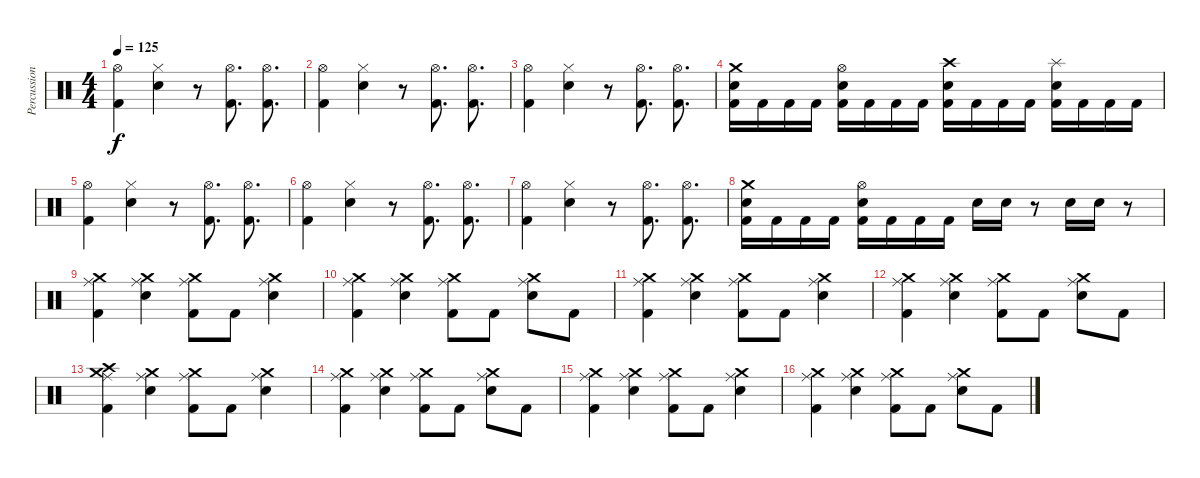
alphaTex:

\track ("Percussions" "Percussion") {instrument percussion}
\staff {score}
\articulation defaults
\ts (4 4)
\tempo 125
\clef neutral
\ks c
("Hi-Hat (open)" "Kick (hit) 2").4{dy f} ("Hi-Hat (closed)" "Electric Snare (hit)").4 r.8 ("Hi-Hat (open)" "Kick (hit) 2").8{d} ("Hi-Hat (open)" "Kick (hit) 2").8{d} |
("Hi-Hat (open)" "Kick (hit) 2").4 ("Hi-Hat (closed)" "Electric Snare (hit)").4 r.8 ("Hi-Hat (open)" "Kick (hit) 2").8{d} ("Hi-Hat (open)" "Kick (hit) 2").8{d} |
("Hi-Hat (open)" "Kick (hit) 2").4 ("Hi-Hat (closed)" "Electric Snare (hit)").4 r.8 ("Hi-Hat (open)" "Kick (hit) 2").8{d} ("Hi-Hat (open)" "Kick (hit) 2").8{d} |
("Crash medium (hit)" "Electric Snare (hit)" "Kick (hit) 2").16 "Kick (hit) 2".16 "Kick (hit) 2".16 "Kick (hit) 2".16 ("Hi-Hat (open)" "Electric Snare (hit)" "Kick (hit) 2").16 "Kick (hit) 2".16 "Kick (hit) 2".16 "Kick (hit) 2".16 ("Crash high (hit)" "Electric Snare (hit)" "Kick (hit) 2").16 "Kick (hit) 2".16 "Kick (hit) 2".16 "Kick (hit) 2".16 ("Splash (hit)" "Electric Snare (hit)" "Kick (hit) 2").16 "Kick (hit) 2".16 "Kick (hit) 2".16 "Kick (hit) 2".16 |
("Hi-Hat (open)" "Kick (hit) 2").4 ("Hi-Hat (closed)" "Electric Snare (hit)").4 r.8 ("Hi-Hat (open)" "Kick (hit) 2").8{d} ("Hi-Hat (open)" "Kick (hit) 2").8{d} |
("Hi-Hat (open)" "Kick (hit) 2").4 ("Hi-Hat (closed)" "Electric Snare (hit)").4 r.8 ("Hi-Hat (open)" "Kick (hit) 2").8{d} ("Hi-Hat (open)" "Kick (hit) 2").8{d} |
("Hi-Hat (open)" "Kick (hit) 2").4 ("Hi-Hat (closed)" "Electric Snare (hit)").4 r.8 ("Hi-Hat (open)" "Kick (hit) 2").8{d} ("Hi-Hat (open)" "Kick (hit) 2").8{d} |
("Crash medium (hit)" "Electric Snare (hit)" "Kick (hit) 2").16 "Kick (hit) 2".16 "Kick (hit) 2".16 "Kick (hit) 2".16 ("Hi-Hat (open)" "Electric Snare (hit)" "Kick (hit) 2").16 "Kick (hit) 2".16 "Kick (hit) 2".16 "Kick (hit) 2".16 "Electric Snare (hit)".16 "Electric Snare (hit)".16 r.8 "Electric Snare (hit)".16 "Electric Snare (hit)".16 r.8 |
("Ride (middle)" "Crash medium (hit)" "Kick (hit) 2").4 ("Ride (middle)" "Crash medium (hit)" "Electric Snare (hit)").4 ("Ride (middle)" "Crash medium (hit)" "Kick (hit) 2").8 "Kick (hit) 2".8 ("Ride (middle)" "Crash medium (hit)" "Electric Snare (hit)").4 |
("Ride (middle)" "Crash medium (hit)" "Kick (hit) 2").4 ("Ride (middle)" "Crash medium (hit)" "Electric Snare (hit)").4 ("Ride (middle)" "Crash medium (hit)" "Kick (hit) 2").8 "Kick (hit) 2".8 ("Ride (middle)" "Crash medium (hit)" "Electric Snare (hit)").8 "Kick (hit) 2".8 |
("Ride (middle)" "Crash medium (hit)" "Kick (hit) 2").4 ("Ride (middle)" "Crash medium (hit)" "Electric Snare (hit)").4 ("Ride (middle)" "Crash medium (hit)" "Kick (hit) 2").8 "Kick (hit) 2".8 ("Ride (middle)" "Crash medium (hit)" "Electric Snare (hit)").4 |
("Ride (middle)" "Crash medium (hit)" "Kick (hit) 2").4 ("Ride (middle)" "Crash medium (hit)" "Electric Snare (hit)").4 ("Ride (middle)" "Crash medium (hit)" "Kick (hit) 2").8 "Kick (hit) 2".8 ("Ride (middle)" "Crash medium (hit)" "Electric Snare (hit)").8 "Kick (hit) 2".8 |
("Crash high (hit)" "Ride (middle)" "Crash medium (hit)" "Kick (hit) 2").4 ("Ride (middle)" "Crash medium (hit)" "Electric Snare (hit)").4 ("Ride (middle)" "Crash medium (hit)" "Kick (hit) 2").8 "Kick (hit) 2".8 ("Ride (middle)" "Crash medium (hit)" "Electric Snare (hit)").4 |
("Ride (middle)" "Crash medium (hit)" "Kick (hit) 2").4 ("Ride (middle)" "Crash medium (hit)" "Electric Snare (hit)").4 ("Ride (middle)" "Crash medium (hit)" "Kick (hit) 2").8 "Kick (hit) 2".8 ("Ride (middle)" "Crash medium (hit)" "Electric Snare (hit)").8 "Kick (hit) 2".8 |
("Ride (middle)" "Crash medium (hit)" "Kick (hit) 2").4 ("Ride (middle)" "Crash medium (hit)" "Electric Snare (hit)").4 ("Ride (middle)" "Crash medium (hit)" "Kick (hit) 2").8 "Kick (hit) 2".8 ("Ride (middle)" "Crash medium (hit)" "Electric Snare (hit)").4 |
("Ride (middle)" "Crash medium (hit)" "Kick (hit) 2").4 ("Ride (middle)" "Crash medium (hit)" "Electric Snare (hit)").4 ("Ride (middle)" "Crash medium (hit)" "Kick (hit) 2").8 "Kick (hit) 2".8 ("Ride (middle)" "Crash medium (hit)" "Electric Snare (hit)").8 "Kick (hit) 2".8
